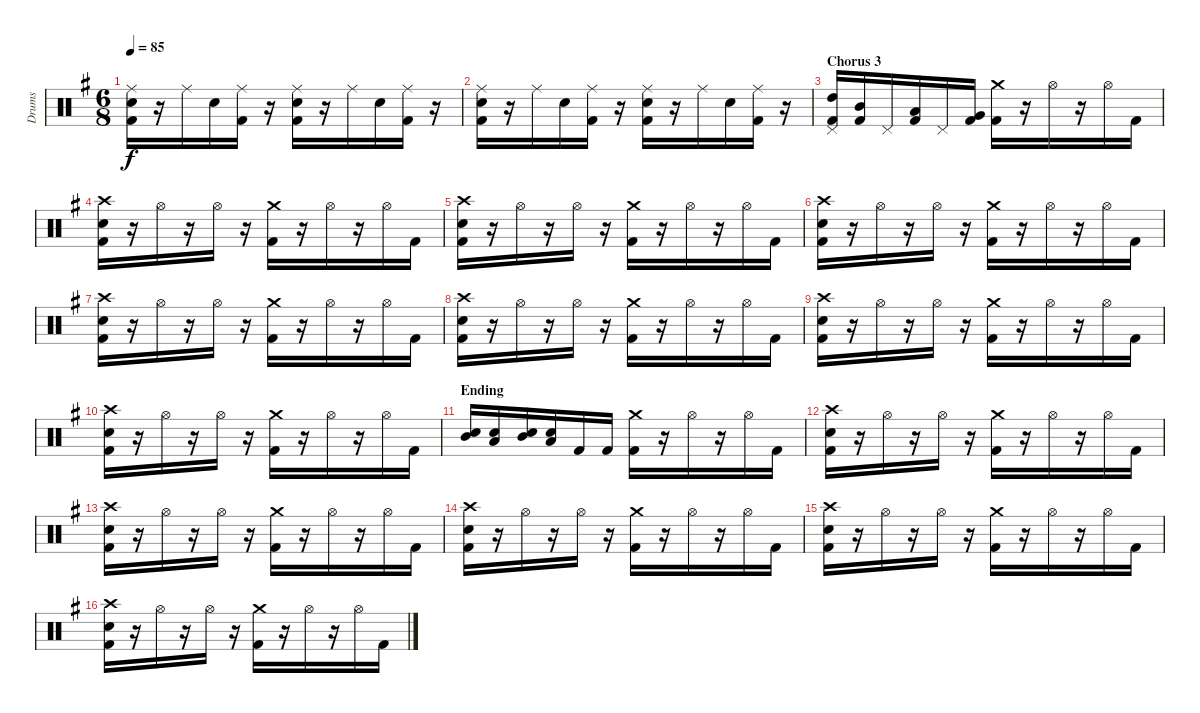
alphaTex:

\track ("Drums" "Drums") {instrument percussion}
\staff {score}
\articulation defaults
\ts (6 8)
\tempo 85
\clef neutral
\ks eminor
("Ride (middle)" "Electric Snare (hit)" "Kick (hit) 2").16{dy f} r.16 "Ride (middle)".16 "Electric Snare (hit)".16 ("Ride (middle)" "Kick (hit) 2").16 r.16 ("Ride (middle)" "Electric Snare (hit)" "Kick (hit) 2").16 r.16 "Ride (middle)".16 "Electric Snare (hit)".16 ("Ride (middle)" "Kick (hit) 2").16 r.16 |
("Ride (middle)" "Electric Snare (hit)" "Kick (hit) 2").16 r.16 "Ride (middle)".16 "Electric Snare (hit)".16 ("Ride (middle)" "Kick (hit) 2").16 r.16 ("Ride (middle)" "Electric Snare (hit)" "Kick (hit) 2").16 r.16 "Ride (middle)".16 "Electric Snare (hit)".16 ("Ride (middle)" "Kick (hit) 2").16 r.16 |
\section ("" "Chorus 3")
("High Tom (hit)" "Pedal Hi-Hat (hit)" "Kick (hit) 2").16 ("Mid Tom (hit)" "Kick (hit) 2").16 "Pedal Hi-Hat (hit)".16 ("Low Tom (hit)" "Kick (hit) 2").16 "Pedal Hi-Hat (hit)".16 ("Very Low Tom (hit)" "Kick (hit) 2").16 ("Crash medium (hit)" "Kick (hit) 2").16 r.16 "Hi-Hat (open)".16 r.16 "Hi-Hat (open)".16 "Kick (hit) 2".16 |
("Crash high (hit)" "Electric Snare (hit)" "Kick (hit) 2").16 r.16 "Hi-Hat (open)".16 r.16 "Hi-Hat (open)".16 r.16 ("Crash medium (hit)" "Kick (hit) 2").16 r.16 "Hi-Hat (open)".16 r.16 "Hi-Hat (open)".16 "Kick (hit) 2".16 |
("Crash high (hit)" "Electric Snare (hit)" "Kick (hit) 2").16 r.16 "Hi-Hat (open)".16 r.16 "Hi-Hat (open)".16 r.16 ("Crash medium (hit)" "Kick (hit) 2").16 r.16 "Hi-Hat (open)".16 r.16 "Hi-Hat (open)".16 "Kick (hit) 2".16 |
("Crash high (hit)" "Electric Snare (hit)" "Kick (hit) 2").16 r.16 "Hi-Hat (open)".16 r.16 "Hi-Hat (open)".16 r.16 ("Crash medium (hit)" "Kick (hit) 2").16 r.16 "Hi-Hat (open)".16 r.16 "Hi-Hat (open)".16 "Kick (hit) 2".16 |
("Crash high (hit)" "Electric Snare (hit)" "Kick (hit) 2").16 r.16 "Hi-Hat (open)".16 r.16 "Hi-Hat (open)".16 r.16 ("Crash medium (hit)" "Kick (hit) 2").16 r.16 "Hi-Hat (open)".16 r.16 "Hi-Hat (open)".16 "Kick (hit) 2".16 |
("Crash high (hit)" "Electric Snare (hit)" "Kick (hit) 2").16 r.16 "Hi-Hat (open)".16 r.16 "Hi-Hat (open)".16 r.16 ("Crash medium (hit)" "Kick (hit) 2").16 r.16 "Hi-Hat (open)".16 r.16 "Hi-Hat (open)".16 "Kick (hit) 2".16 |
("Crash high (hit)" "Electric Snare (hit)" "Kick (hit) 2").16 r.16 "Hi-Hat (open)".16 r.16 "Hi-Hat (open)".16 r.16 ("Crash medium (hit)" "Kick (hit) 2").16 r.16 "Hi-Hat (open)".16 r.16 "Hi-Hat (open)".16 "Kick (hit) 2".16 |
("Crash high (hit)" "Electric Snare (hit)" "Kick (hit) 2").16 r.16 "Hi-Hat (open)".16 r.16 "Hi-Hat (open)".16 r.16 ("Crash medium (hit)" "Kick (hit) 2").16 r.16 "Hi-Hat (open)".16 r.16 "Hi-Hat (open)".16 "Kick (hit) 2".16 |
\section ("" "Ending")
("Mid Tom (hit)" "Electric Snare (hit)").16 ("Electric Snare (hit)" "Low Tom (hit)").16 ("Mid Tom (hit)" "Electric Snare (hit)").16 ("Electric Snare (hit)" "Low Tom (hit)").16 "Kick (hit) 2".16 "Kick (hit) 2".16 ("Crash medium (hit)" "Kick (hit) 2").16 r.16 "Hi-Hat (open)".16 r.16 "Hi-Hat (open)".16 "Kick (hit) 2".16 |
("Crash high (hit)" "Electric Snare (hit)" "Kick (hit) 2").16 r.16 "Hi-Hat (open)".16 r.16 "Hi-Hat (open)".16 r.16 ("Crash medium (hit)" "Kick (hit) 2").16 r.16 "Hi-Hat (open)".16 r.16 "Hi-Hat (open)".16 "Kick (hit) 2".16 |
("Crash high (hit)" "Electric Snare (hit)" "Kick (hit) 2").16 r.16 "Hi-Hat (open)".16 r.16 "Hi-Hat (open)".16 r.16 ("Crash medium (hit)" "Kick (hit) 2").16 r.16 "Hi-Hat (open)".16 r.16 "Hi-Hat (open)".16 "Kick (hit) 2".16 |
("Crash high (hit)" "Electric Snare (hit)" "Kick (hit) 2").16 r.16 "Hi-Hat (open)".16 r.16 "Hi-Hat (open)".16 r.16 ("Crash medium (hit)" "Kick (hit) 2").16 r.16 "Hi-Hat (open)".16 r.16 "Hi-Hat (open)".16 "Kick (hit) 2".16 |
("Crash high (hit)" "Electric Snare (hit)" "Kick (hit) 2").16 r.16 "Hi-Hat (open)".16 r.16 "Hi-Hat (open)".16 r.16 ("Crash medium (hit)" "Kick (hit) 2").16 r.16 "Hi-Hat (open)".16 r.16 "Hi-Hat (open)".16 "Kick (hit) 2".16 |
("Crash high (hit)" "Electric Snare (hit)" "Kick (hit) 2").16 r.16 "Hi-Hat (open)".16 r.16 "Hi-Hat (open)".16 r.16 ("Crash medium (hit)" "Kick (hit) 2").16 r.16 "Hi-Hat (open)".16 r.16 "Hi-Hat (open)".16 "Kick (hit) 2".16
